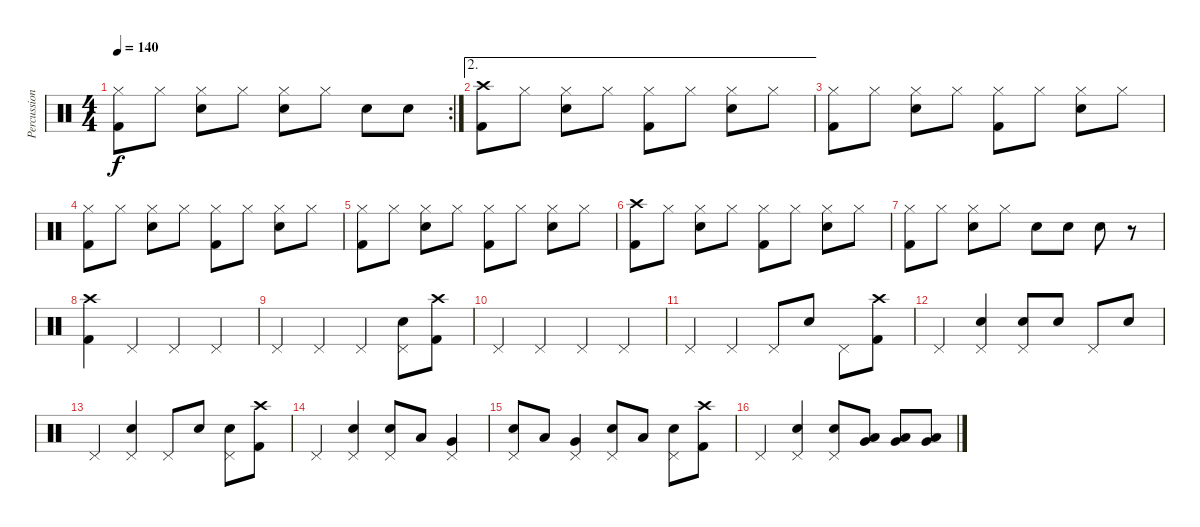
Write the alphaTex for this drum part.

\track ("Percussion" "Percussion") {instrument percussion}
\staff {score}
\articulation defaults
\rc 2
\ts (4 4)
\tempo 140
\clef neutral
\ks c
("Hi-Hat (closed)" "Kick (hit) 2").8{dy f} "Hi-Hat (closed)".8 ("Hi-Hat (closed)" "Electric Snare (hit)").8 "Hi-Hat (closed)".8 ("Hi-Hat (closed)" "Electric Snare (hit)").8 "Hi-Hat (closed)".8 "Electric Snare (hit)".8 "Electric Snare (hit)".8 |
\ae 2
("Crash high (hit)" "Kick (hit) 2").8 "Hi-Hat (closed)".8 ("Hi-Hat (closed)" "Electric Snare (hit)").8 "Hi-Hat (closed)".8 ("Hi-Hat (closed)" "Kick (hit) 2").8 "Hi-Hat (closed)".8 ("Hi-Hat (closed)" "Electric Snare (hit)").8 "Hi-Hat (closed)".8 |
("Hi-Hat (closed)" "Kick (hit) 2").8 "Hi-Hat (closed)".8 ("Hi-Hat (closed)" "Electric Snare (hit)").8 "Hi-Hat (closed)".8 ("Hi-Hat (closed)" "Kick (hit) 2").8 "Hi-Hat (closed)".8 ("Hi-Hat (closed)" "Electric Snare (hit)").8 "Hi-Hat (closed)".8 |
("Hi-Hat (closed)" "Kick (hit) 2").8 "Hi-Hat (closed)".8 ("Hi-Hat (closed)" "Electric Snare (hit)").8 "Hi-Hat (closed)".8 ("Hi-Hat (closed)" "Kick (hit) 2").8 "Hi-Hat (closed)".8 ("Hi-Hat (closed)" "Electric Snare (hit)").8 "Hi-Hat (closed)".8 |
("Hi-Hat (closed)" "Kick (hit) 2").8 "Hi-Hat (closed)".8 ("Hi-Hat (closed)" "Electric Snare (hit)").8 "Hi-Hat (closed)".8 ("Hi-Hat (closed)" "Kick (hit) 2").8 "Hi-Hat (closed)".8 ("Hi-Hat (closed)" "Electric Snare (hit)").8 "Hi-Hat (closed)".8 |
("Crash high (hit)" "Kick (hit) 2").8 "Hi-Hat (closed)".8 ("Hi-Hat (closed)" "Electric Snare (hit)").8 "Hi-Hat (closed)".8 ("Hi-Hat (closed)" "Kick (hit) 2").8 "Hi-Hat (closed)".8 ("Hi-Hat (closed)" "Electric Snare (hit)").8 "Hi-Hat (closed)".8 |
("Hi-Hat (closed)" "Kick (hit) 2").8 "Hi-Hat (closed)".8 ("Hi-Hat (closed)" "Electric Snare (hit)").8 "Hi-Hat (closed)".8 "Electric Snare (hit)".8 "Electric Snare (hit)".8 "Electric Snare (hit)".8 r.8 |
("Crash high (hit)" "Kick (hit) 2").4 "Pedal Hi-Hat (hit)".4 "Pedal Hi-Hat (hit)".4 "Pedal Hi-Hat (hit)".4 |
"Pedal Hi-Hat (hit)".4 "Pedal Hi-Hat (hit)".4 "Pedal Hi-Hat (hit)".4 ("Pedal Hi-Hat (hit)" "Electric Snare (hit)").8 ("Crash high (hit)" "Kick (hit) 2").8 |
"Pedal Hi-Hat (hit)".4 "Pedal Hi-Hat (hit)".4 "Pedal Hi-Hat (hit)".4 "Pedal Hi-Hat (hit)".4 |
"Pedal Hi-Hat (hit)".4 "Pedal Hi-Hat (hit)".4 "Pedal Hi-Hat (hit)".8 "Electric Snare (hit)".8 "Pedal Hi-Hat (hit)".8 ("Crash high (hit)" "Kick (hit) 2").8 |
"Pedal Hi-Hat (hit)".4 ("Pedal Hi-Hat (hit)" "Electric Snare (hit)").4 ("Pedal Hi-Hat (hit)" "Electric Snare (hit)").8 "Electric Snare (hit)".8 "Pedal Hi-Hat (hit)".8 "Electric Snare (hit)".8 |
"Pedal Hi-Hat (hit)".4 ("Pedal Hi-Hat (hit)" "Electric Snare (hit)").4 "Pedal Hi-Hat (hit)".8 "Electric Snare (hit)".8 ("Pedal Hi-Hat (hit)" "Electric Snare (hit)").8 ("Crash high (hit)" "Kick (hit) 2").8 |
"Pedal Hi-Hat (hit)".4 ("Pedal Hi-Hat (hit)" "Electric Snare (hit)").4 ("Pedal Hi-Hat (hit)" "Electric Snare (hit)").8 "Low Tom (hit)".8 ("Very Low Tom (hit)" "Pedal Hi-Hat (hit)").4 |
("Pedal Hi-Hat (hit)" "Electric Snare (hit)").8 "Low Tom (hit)".8 ("Very Low Tom (hit)" "Pedal Hi-Hat (hit)").4 ("Pedal Hi-Hat (hit)" "Electric Snare (hit)").8 "Low Tom (hit)".8 ("Pedal Hi-Hat (hit)" "Electric Snare (hit)").8 ("Crash high (hit)" "Kick (hit) 2").8 |
"Pedal Hi-Hat (hit)".4 ("Pedal Hi-Hat (hit)" "Electric Snare (hit)").4 ("Pedal Hi-Hat (hit)" "Electric Snare (hit)").8 ("Very Low Tom (hit)" "Low Tom (hit)").8 ("Very Low Tom (hit)" "Low Tom (hit)").8 ("Very Low Tom (hit)" "Low Tom (hit)").8
